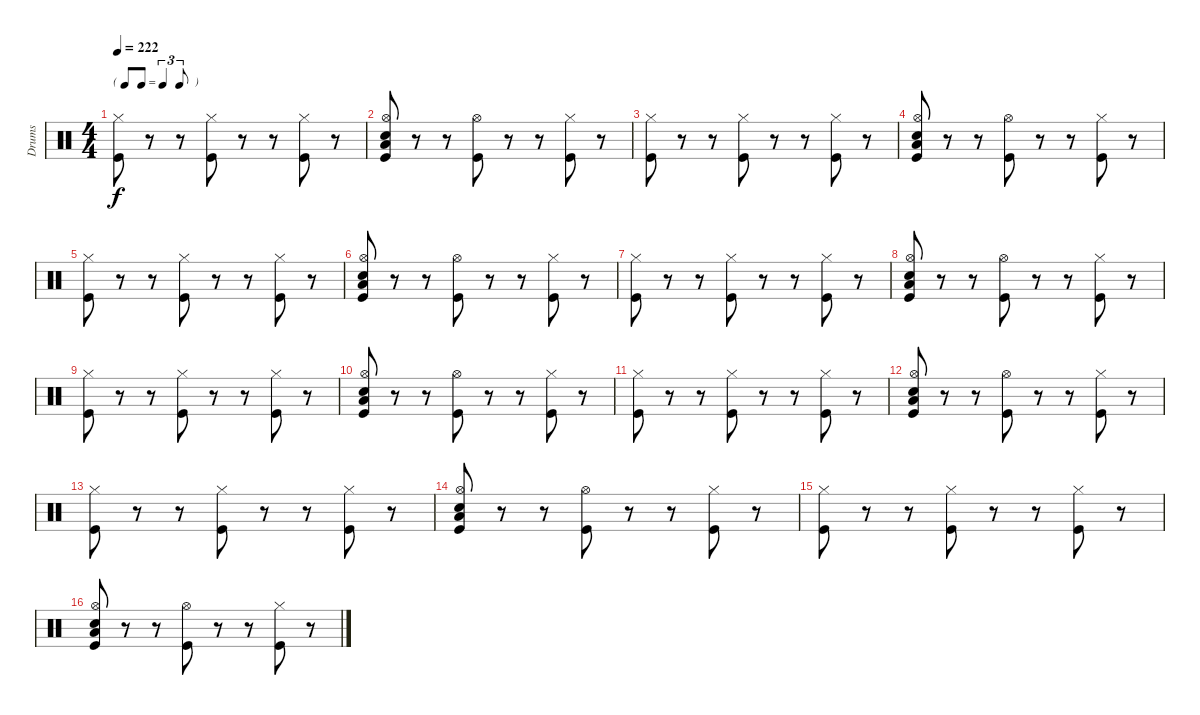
\track ("Drums" "Drums") {instrument percussion}
\staff {score}
\articulation defaults
\ts (4 4)
\tf triplet8th
\tempo 222
\clef neutral
\ks c
("Hi-Hat (closed)" "Kick (hit)").8{dy f} r.8 r.8 ("Hi-Hat (closed)" "Kick (hit)").8 r.8 r.8 ("Hi-Hat (closed)" "Kick (hit)").8 r.8 |
("Snare (hit) 2" "Hi-Hat (open)" "Low Floor Tom (hit)" "Kick (hit)").8 r.8 r.8 ("Hi-Hat (open)" "Kick (hit)").8 r.8 r.8 ("Hi-Hat (closed)" "Kick (hit)").8 r.8 |
("Hi-Hat (closed)" "Kick (hit)").8 r.8 r.8 ("Hi-Hat (closed)" "Kick (hit)").8 r.8 r.8 ("Hi-Hat (closed)" "Kick (hit)").8 r.8 |
("Snare (hit) 2" "Hi-Hat (open)" "Low Floor Tom (hit)" "Kick (hit)").8 r.8 r.8 ("Hi-Hat (open)" "Kick (hit)").8 r.8 r.8 ("Hi-Hat (closed)" "Kick (hit)").8 r.8 |
("Hi-Hat (closed)" "Kick (hit)").8 r.8 r.8 ("Hi-Hat (closed)" "Kick (hit)").8 r.8 r.8 ("Hi-Hat (closed)" "Kick (hit)").8 r.8 |
("Snare (hit) 2" "Hi-Hat (open)" "Low Floor Tom (hit)" "Kick (hit)").8 r.8 r.8 ("Hi-Hat (open)" "Kick (hit)").8 r.8 r.8 ("Hi-Hat (closed)" "Kick (hit)").8 r.8 |
("Hi-Hat (closed)" "Kick (hit)").8 r.8 r.8 ("Hi-Hat (closed)" "Kick (hit)").8 r.8 r.8 ("Hi-Hat (closed)" "Kick (hit)").8 r.8 |
("Snare (hit) 2" "Hi-Hat (open)" "Low Floor Tom (hit)" "Kick (hit)").8 r.8 r.8 ("Hi-Hat (open)" "Kick (hit)").8 r.8 r.8 ("Hi-Hat (closed)" "Kick (hit)").8 r.8 |
("Hi-Hat (closed)" "Kick (hit)").8 r.8 r.8 ("Hi-Hat (closed)" "Kick (hit)").8 r.8 r.8 ("Hi-Hat (closed)" "Kick (hit)").8 r.8 |
("Snare (hit) 2" "Hi-Hat (open)" "Low Floor Tom (hit)" "Kick (hit)").8 r.8 r.8 ("Hi-Hat (open)" "Kick (hit)").8 r.8 r.8 ("Hi-Hat (closed)" "Kick (hit)").8 r.8 |
("Hi-Hat (closed)" "Kick (hit)").8 r.8 r.8 ("Hi-Hat (closed)" "Kick (hit)").8 r.8 r.8 ("Hi-Hat (closed)" "Kick (hit)").8 r.8 |
("Snare (hit) 2" "Hi-Hat (open)" "Low Floor Tom (hit)" "Kick (hit)").8 r.8 r.8 ("Hi-Hat (open)" "Kick (hit)").8 r.8 r.8 ("Hi-Hat (closed)" "Kick (hit)").8 r.8 |
("Hi-Hat (closed)" "Kick (hit)").8 r.8 r.8 ("Hi-Hat (closed)" "Kick (hit)").8 r.8 r.8 ("Hi-Hat (closed)" "Kick (hit)").8 r.8 |
("Snare (hit) 2" "Hi-Hat (open)" "Low Floor Tom (hit)" "Kick (hit)").8 r.8 r.8 ("Hi-Hat (open)" "Kick (hit)").8 r.8 r.8 ("Hi-Hat (closed)" "Kick (hit)").8 r.8 |
("Hi-Hat (closed)" "Kick (hit)").8 r.8 r.8 ("Hi-Hat (closed)" "Kick (hit)").8 r.8 r.8 ("Hi-Hat (closed)" "Kick (hit)").8 r.8 |
("Snare (hit) 2" "Hi-Hat (open)" "Low Floor Tom (hit)" "Kick (hit)").8 r.8 r.8 ("Hi-Hat (open)" "Kick (hit)").8 r.8 r.8 ("Hi-Hat (closed)" "Kick (hit)").8 r.8
